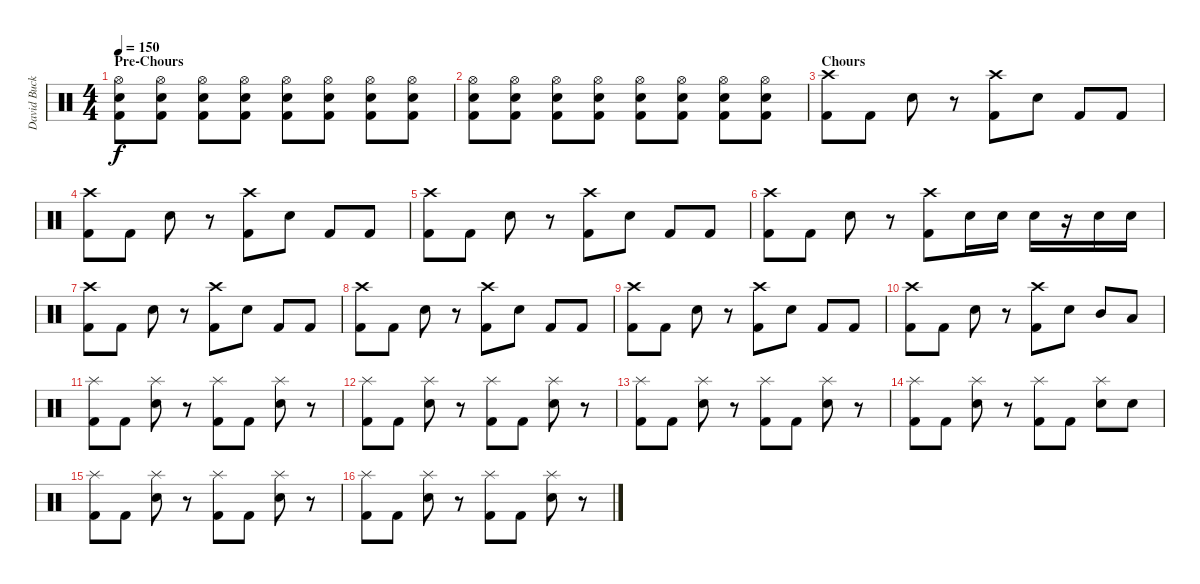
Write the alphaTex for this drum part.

\track ("David Buckner" "David Buck") {instrument percussion}
\staff {score}
\articulation defaults
\ts (4 4)
\section ("" "Pre-Chours")
\tempo 150
\clef neutral
\ks c
("Hi-Hat (open)" "Snare (hit) 2" "Kick (hit) 2").8{dy f} ("Hi-Hat (open)" "Snare (hit) 2" "Kick (hit) 2").8 ("Hi-Hat (open)" "Snare (hit) 2" "Kick (hit) 2").8 ("Hi-Hat (open)" "Snare (hit) 2" "Kick (hit) 2").8 ("Hi-Hat (open)" "Snare (hit) 2" "Kick (hit) 2").8 ("Hi-Hat (open)" "Snare (hit) 2" "Kick (hit) 2").8 ("Hi-Hat (open)" "Snare (hit) 2" "Kick (hit) 2").8 ("Hi-Hat (open)" "Snare (hit) 2" "Kick (hit) 2").8 |
("Hi-Hat (open)" "Snare (hit) 2" "Kick (hit) 2").8 ("Hi-Hat (open)" "Snare (hit) 2" "Kick (hit) 2").8 ("Hi-Hat (open)" "Snare (hit) 2" "Kick (hit) 2").8 ("Hi-Hat (open)" "Snare (hit) 2" "Kick (hit) 2").8 ("Hi-Hat (open)" "Snare (hit) 2" "Kick (hit) 2").8 ("Hi-Hat (open)" "Snare (hit) 2" "Kick (hit) 2").8 ("Hi-Hat (open)" "Snare (hit) 2" "Kick (hit) 2").8 ("Hi-Hat (open)" "Snare (hit) 2" "Kick (hit) 2").8 |
\section ("" "Chours")
("Crash high (hit)" "Kick (hit) 2").8 "Kick (hit) 2".8 "Snare (hit) 2".8 r.8 ("Crash high (hit)" "Kick (hit) 2").8 "Snare (hit) 2".8 "Kick (hit) 2".8 "Kick (hit) 2".8 |
("Crash high (hit)" "Kick (hit) 2").8 "Kick (hit) 2".8 "Snare (hit) 2".8 r.8 ("Crash high (hit)" "Kick (hit) 2").8 "Snare (hit) 2".8 "Kick (hit) 2".8 "Kick (hit) 2".8 |
("Crash high (hit)" "Kick (hit) 2").8 "Kick (hit) 2".8 "Snare (hit) 2".8 r.8 ("Crash high (hit)" "Kick (hit) 2").8 "Snare (hit) 2".8 "Kick (hit) 2".8 "Kick (hit) 2".8 |
("Crash high (hit)" "Kick (hit) 2").8 "Kick (hit) 2".8 "Snare (hit) 2".8 r.8 ("Crash high (hit)" "Kick (hit) 2").8 "Snare (hit) 2".16 "Snare (hit) 2".16 "Snare (hit) 2".16 r.16 "Snare (hit) 2".16 "Snare (hit) 2".16 |
("Crash high (hit)" "Kick (hit) 2").8 "Kick (hit) 2".8 "Snare (hit) 2".8 r.8 ("Crash high (hit)" "Kick (hit) 2").8 "Snare (hit) 2".8 "Kick (hit) 2".8 "Kick (hit) 2".8 |
("Crash high (hit)" "Kick (hit) 2").8 "Kick (hit) 2".8 "Snare (hit) 2".8 r.8 ("Crash high (hit)" "Kick (hit) 2").8 "Snare (hit) 2".8 "Kick (hit) 2".8 "Kick (hit) 2".8 |
("Crash high (hit)" "Kick (hit) 2").8 "Kick (hit) 2".8 "Snare (hit) 2".8 r.8 ("Crash high (hit)" "Kick (hit) 2").8 "Snare (hit) 2".8 "Kick (hit) 2".8 "Kick (hit) 2".8 |
("Crash high (hit)" "Kick (hit) 2").8 "Kick (hit) 2".8 "Snare (hit) 2".8 r.8 ("Crash high (hit)" "Kick (hit) 2").8 "Snare (hit) 2".8 "Mid Tom (hit)".8 "Low Tom (hit)".8 |
("Splash (hit)" "Kick (hit) 2").8 "Kick (hit) 2".8 ("Splash (hit)" "Snare (hit) 2").8 r.8 ("Splash (hit)" "Kick (hit) 2").8 "Kick (hit) 2".8 ("Splash (hit)" "Snare (hit) 2").8 r.8 |
("Splash (hit)" "Kick (hit) 2").8 "Kick (hit) 2".8 ("Splash (hit)" "Snare (hit) 2").8 r.8 ("Splash (hit)" "Kick (hit) 2").8 "Kick (hit) 2".8 ("Splash (hit)" "Snare (hit) 2").8 r.8 |
("Splash (hit)" "Kick (hit) 2").8 "Kick (hit) 2".8 ("Splash (hit)" "Snare (hit) 2").8 r.8 ("Splash (hit)" "Kick (hit) 2").8 "Kick (hit) 2".8 ("Splash (hit)" "Snare (hit) 2").8 r.8 |
("Splash (hit)" "Kick (hit) 2").8 "Kick (hit) 2".8 ("Splash (hit)" "Snare (hit) 2").8 r.8 ("Splash (hit)" "Kick (hit) 2").8 "Kick (hit) 2".8 ("Splash (hit)" "Snare (hit) 2").8 "Snare (hit) 2".8 |
("Splash (hit)" "Kick (hit) 2").8 "Kick (hit) 2".8 ("Splash (hit)" "Snare (hit) 2").8 r.8 ("Splash (hit)" "Kick (hit) 2").8 "Kick (hit) 2".8 ("Splash (hit)" "Snare (hit) 2").8 r.8 |
("Splash (hit)" "Kick (hit) 2").8 "Kick (hit) 2".8 ("Splash (hit)" "Snare (hit) 2").8 r.8 ("Splash (hit)" "Kick (hit) 2").8 "Kick (hit) 2".8 ("Splash (hit)" "Snare (hit) 2").8 r.8
